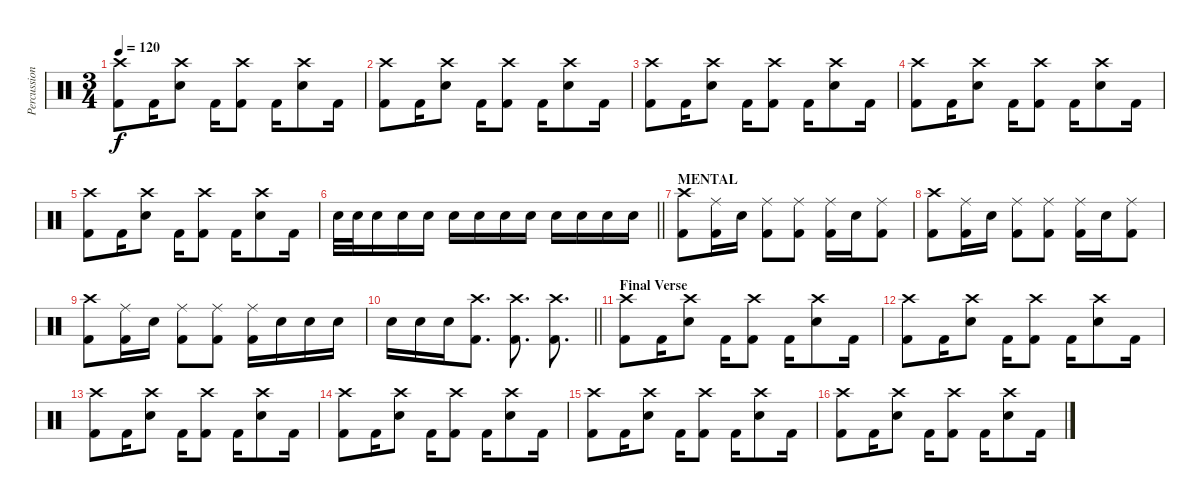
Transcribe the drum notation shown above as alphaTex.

\track ("Percussion" "Percussion") {instrument percussion}
\staff {score}
\articulation defaults
\ts (3 4)
\tempo 120
\clef neutral
\ks c
("Crash high (hit)" "Kick (hit) 2").8{dy f} "Kick (hit) 2".16 ("Crash high (hit)" "Snare (hit) 2").8 "Kick (hit) 2".16 ("Crash high (hit)" "Kick (hit) 2").8 "Kick (hit) 2".16 ("Crash high (hit)" "Snare (hit) 2").8 "Kick (hit) 2".16 |
("Crash high (hit)" "Kick (hit) 2").8 "Kick (hit) 2".16 ("Crash high (hit)" "Snare (hit) 2").8 "Kick (hit) 2".16 ("Crash high (hit)" "Kick (hit) 2").8 "Kick (hit) 2".16 ("Crash high (hit)" "Snare (hit) 2").8 "Kick (hit) 2".16 |
("Crash high (hit)" "Kick (hit) 2").8 "Kick (hit) 2".16 ("Crash high (hit)" "Snare (hit) 2").8 "Kick (hit) 2".16 ("Crash high (hit)" "Kick (hit) 2").8 "Kick (hit) 2".16 ("Crash high (hit)" "Snare (hit) 2").8 "Kick (hit) 2".16 |
("Crash high (hit)" "Kick (hit) 2").8 "Kick (hit) 2".16 ("Crash high (hit)" "Snare (hit) 2").8 "Kick (hit) 2".16 ("Crash high (hit)" "Kick (hit) 2").8 "Kick (hit) 2".16 ("Crash high (hit)" "Snare (hit) 2").8 "Kick (hit) 2".16 |
("Crash high (hit)" "Kick (hit) 2").8 "Kick (hit) 2".16 ("Crash high (hit)" "Snare (hit) 2").8 "Kick (hit) 2".16 ("Crash high (hit)" "Kick (hit) 2").8 "Kick (hit) 2".16 ("Crash high (hit)" "Snare (hit) 2").8 "Kick (hit) 2".16 |
\barLineRight lightlight "Snare (hit) 2".32 "Snare (hit) 2".32 "Snare (hit) 2".16 "Snare (hit) 2".16 "Snare (hit) 2".16 "Snare (hit) 2".16 "Snare (hit) 2".16 "Snare (hit) 2".16 "Snare (hit) 2".16 "Snare (hit) 2".16 "Snare (hit) 2".16 "Snare (hit) 2".16 "Snare (hit) 2".16
|
\section ("" "MENTAL")
("Crash high (hit)" "Kick (hit) 2").8 ("Ride (middle)" "Kick (hit) 2").16 "Snare (hit) 2".16 ("Ride (middle)" "Kick (hit) 2").8 ("Ride (middle)" "Kick (hit) 2").8 ("Ride (middle)" "Kick (hit) 2").16 "Snare (hit) 2".16 ("Ride (middle)" "Kick (hit) 2").8 |
("Crash high (hit)" "Kick (hit) 2").8 ("Ride (middle)" "Kick (hit) 2").16 "Snare (hit) 2".16 ("Ride (middle)" "Kick (hit) 2").8 ("Ride (middle)" "Kick (hit) 2").8 ("Ride (middle)" "Kick (hit) 2").16 "Snare (hit) 2".16 ("Ride (middle)" "Kick (hit) 2").8 |
("Crash high (hit)" "Kick (hit) 2").8 ("Ride (middle)" "Kick (hit) 2").16 "Snare (hit) 2".16 ("Ride (middle)" "Kick (hit) 2").8 ("Ride (middle)" "Kick (hit) 2").8 ("Ride (middle)" "Kick (hit) 2").16 "Snare (hit) 2".16 "Snare (hit) 2".16 "Snare (hit) 2".16 |
\barLineRight lightlight "Snare (hit) 2".16 "Snare (hit) 2".16 "Snare (hit) 2".16
("Crash high (hit)" "Kick (hit) 2").8{d} ("Crash high (hit)" "Kick (hit) 2").8{d} ("Crash high (hit)" "Kick (hit) 2").8{d} |
\section ("" "Final Verse")
("Crash high (hit)" "Kick (hit) 2").8 "Kick (hit) 2".16 ("Crash high (hit)" "Snare (hit) 2").8 "Kick (hit) 2".16 ("Crash high (hit)" "Kick (hit) 2").8 "Kick (hit) 2".16 ("Crash high (hit)" "Snare (hit) 2").8 "Kick (hit) 2".16 |
("Crash high (hit)" "Kick (hit) 2").8 "Kick (hit) 2".16 ("Crash high (hit)" "Snare (hit) 2").8 "Kick (hit) 2".16 ("Crash high (hit)" "Kick (hit) 2").8 "Kick (hit) 2".16 ("Crash high (hit)" "Snare (hit) 2").8 "Kick (hit) 2".16 |
("Crash high (hit)" "Kick (hit) 2").8 "Kick (hit) 2".16 ("Crash high (hit)" "Snare (hit) 2").8 "Kick (hit) 2".16 ("Crash high (hit)" "Kick (hit) 2").8 "Kick (hit) 2".16 ("Crash high (hit)" "Snare (hit) 2").8 "Kick (hit) 2".16 |
("Crash high (hit)" "Kick (hit) 2").8 "Kick (hit) 2".16 ("Crash high (hit)" "Snare (hit) 2").8 "Kick (hit) 2".16 ("Crash high (hit)" "Kick (hit) 2").8 "Kick (hit) 2".16 ("Crash high (hit)" "Snare (hit) 2").8 "Kick (hit) 2".16 |
("Crash high (hit)" "Kick (hit) 2").8 "Kick (hit) 2".16 ("Crash high (hit)" "Snare (hit) 2").8 "Kick (hit) 2".16 ("Crash high (hit)" "Kick (hit) 2").8 "Kick (hit) 2".16 ("Crash high (hit)" "Snare (hit) 2").8 "Kick (hit) 2".16 |
("Crash high (hit)" "Kick (hit) 2").8 "Kick (hit) 2".16 ("Crash high (hit)" "Snare (hit) 2").8 "Kick (hit) 2".16 ("Crash high (hit)" "Kick (hit) 2").8 "Kick (hit) 2".16 ("Crash high (hit)" "Snare (hit) 2").8 "Kick (hit) 2".16
